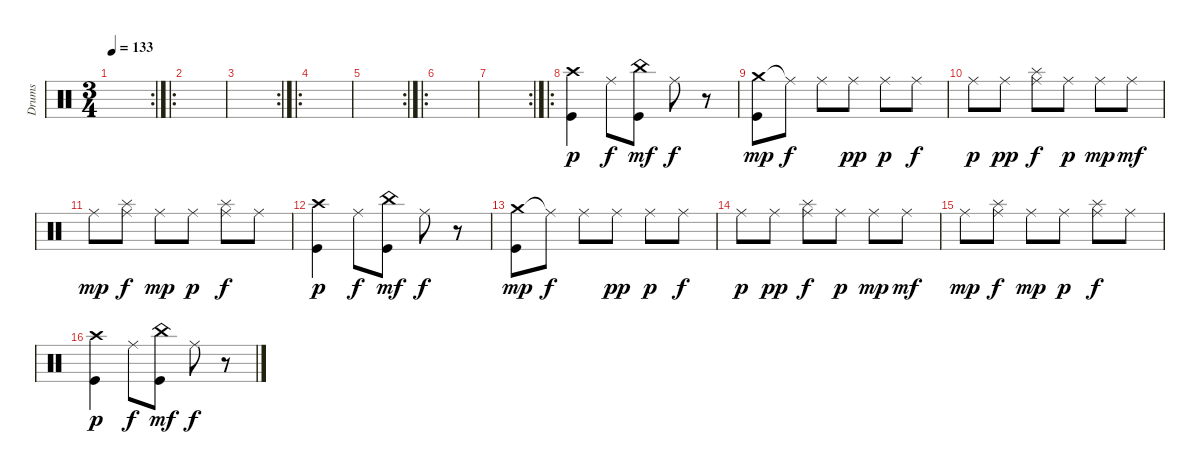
\track ("Drums" "Drums") {instrument percussion}
\staff {score}
\articulation defaults
\rc 2
\ts (3 4)
\tempo 133
\clef neutral
\ks c
|
\ro
|
\rc 2
|
\ro
|
\rc 2
|
\ro
|
\rc 2
|
\ro
("Crash high (hit)" "Kick (hit)").4{dy p} "Ride (middle)".8{dy f} ("China (hit)" "Kick (hit)").8{dy mf} "Ride (middle)".8{dy f} r.8 |
("Crash medium (hit)" "Kick (hit)").8{dy mp} "Ride (middle)"{t}.8{dy f} "Ride (middle)".8 "Ride (middle)".8{dy pp} "Ride (middle)".8{dy p} "Ride (middle)".8{dy f} |
"Ride (middle)".8{dy p} "Ride (middle)".8{dy pp} ("Ride (middle)" "Splash (hit)").8{dy f} "Ride (middle)".8{dy p} "Ride (middle)".8{dy mp} "Ride (middle)".8{dy mf} |
"Ride (middle)".8{dy mp} ("Ride (middle)" "Splash (hit)").8{dy f} "Ride (middle)".8{dy mp} "Ride (middle)".8{dy p} ("Ride (middle)" "Splash (hit)").8{dy f} "Ride (middle)".8 |
("Crash high (hit)" "Kick (hit)").4{dy p} "Ride (middle)".8{dy f} ("China (hit)" "Kick (hit)").8{dy mf} "Ride (middle)".8{dy f} r.8 |
("Crash medium (hit)" "Kick (hit)").8{dy mp} "Ride (middle)"{t}.8{dy f} "Ride (middle)".8 "Ride (middle)".8{dy pp} "Ride (middle)".8{dy p} "Ride (middle)".8{dy f} |
"Ride (middle)".8{dy p} "Ride (middle)".8{dy pp} ("Ride (middle)" "Splash (hit)").8{dy f} "Ride (middle)".8{dy p} "Ride (middle)".8{dy mp} "Ride (middle)".8{dy mf} |
"Ride (middle)".8{dy mp} ("Ride (middle)" "Splash (hit)").8{dy f} "Ride (middle)".8{dy mp} "Ride (middle)".8{dy p} ("Ride (middle)" "Splash (hit)").8{dy f} "Ride (middle)".8 |
("Crash high (hit)" "Kick (hit)").4{dy p} "Ride (middle)".8{dy f} ("China (hit)" "Kick (hit)").8{dy mf} "Ride (middle)".8{dy f} r.8
